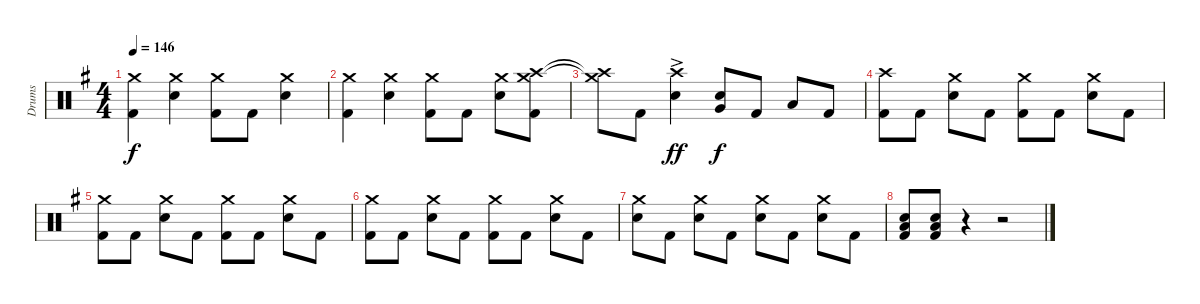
\track ("Drums" "Drums") {instrument percussion}
\staff {score}
\articulation defaults
\ts (4 4)
\tempo 146
\clef neutral
\ks g
("Crash medium (hit)" "Kick (hit) 2").4{dy f} ("Crash medium (hit)" "Electric Snare (hit)").4 ("Crash medium (hit)" "Kick (hit) 2").8 "Kick (hit) 2".8 ("Crash medium (hit)" "Electric Snare (hit)").4 |
("Crash medium (hit)" "Kick (hit) 2").4 ("Crash medium (hit)" "Electric Snare (hit)").4 ("Crash medium (hit)" "Kick (hit) 2").8 "Kick (hit) 2".8 ("Crash medium (hit)" "Electric Snare (hit)").8 ("Crash high (hit)" "Crash medium (hit)" "Kick (hit) 2").8 |
("Crash high (hit)"{t} "Crash medium (hit)"{t}).8 "Kick (hit) 2".8 ("Crash high (hit)"{ac} "Electric Snare (hit)").4{dy ff} ("Very Low Tom (hit)" "Electric Snare (hit)").8{dy f} "Kick (hit) 2".8 "Low Tom (hit)".8 "Kick (hit) 2".8 |
("Crash high (hit)" "Kick (hit) 2").8 "Kick (hit) 2".8 ("Crash medium (hit)" "Electric Snare (hit)").8 "Kick (hit) 2".8 ("Crash medium (hit)" "Kick (hit) 2").8 "Kick (hit) 2".8 ("Crash medium (hit)" "Electric Snare (hit)").8 "Kick (hit) 2".8 |
("Crash medium (hit)" "Kick (hit) 2").8 "Kick (hit) 2".8 ("Crash medium (hit)" "Electric Snare (hit)").8 "Kick (hit) 2".8 ("Crash medium (hit)" "Kick (hit) 2").8 "Kick (hit) 2".8 ("Crash medium (hit)" "Electric Snare (hit)").8 "Kick (hit) 2".8 |
("Crash medium (hit)" "Kick (hit) 2").8 "Kick (hit) 2".8 ("Crash medium (hit)" "Electric Snare (hit)").8 "Kick (hit) 2".8 ("Crash medium (hit)" "Kick (hit) 2").8 "Kick (hit) 2".8 ("Crash medium (hit)" "Electric Snare (hit)").8 "Kick (hit) 2".8 |
("Crash medium (hit)" "Electric Snare (hit)").8 "Kick (hit) 2".8 ("Crash medium (hit)" "Electric Snare (hit)").8 "Kick (hit) 2".8 ("Crash medium (hit)" "Electric Snare (hit)").8 "Kick (hit) 2".8 ("Crash medium (hit)" "Electric Snare (hit)").8 "Kick (hit) 2".8 |
("Electric Snare (hit)" "Low Floor Tom (hit)" "Kick (hit) 2").8 ("Electric Snare (hit)" "Low Floor Tom (hit)" "Kick (hit) 2").8 r.4 r.2
